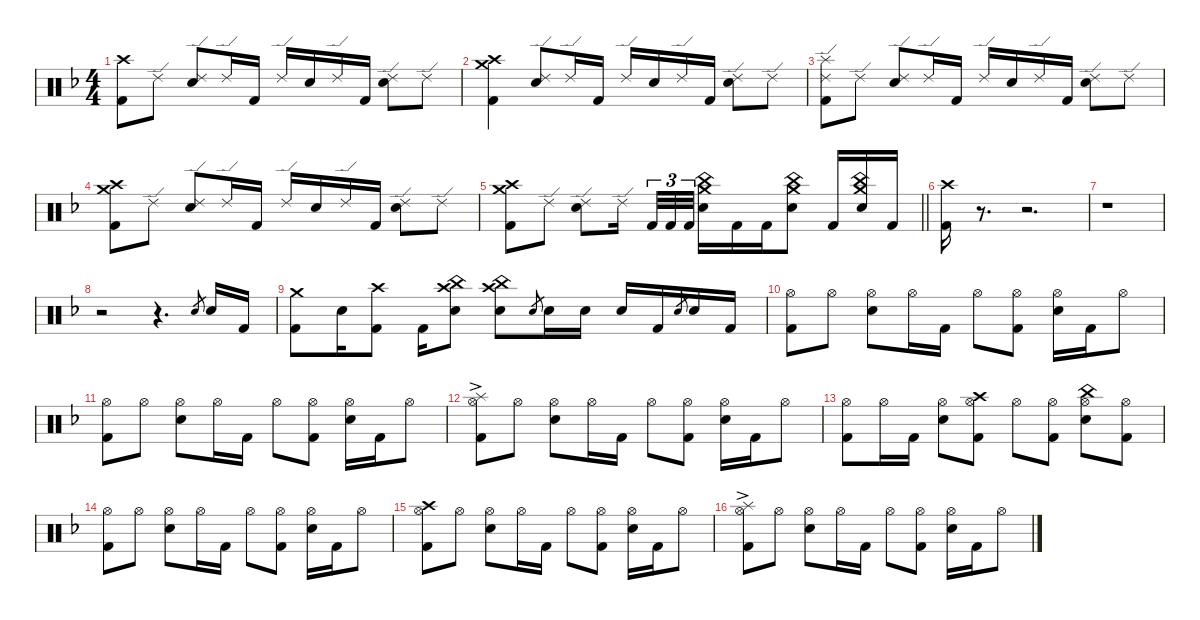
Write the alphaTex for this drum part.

\defaultSystemsLayout 4
\hideDynamics
\bracketExtendMode nobrackets
\singleTrackTrackNamePolicy hidden
\multiTrackTrackNamePolicy hidden
\otherSystemsTrackNameOrientation horizontal
\track ("Martin Lopez - Drums" "drm.") {defaultSystemsLayout 4 instrument percussion}
\staff {score}
\articulation defaults
\ts (4 4)
\tempo (89 hide)
\clef neutral
\ks dminor
("Crash high (hit)"{acc forcenatural} "Kick (hit) 2"{acc forcenatural}).8{dy mf beam Down} "Ride (edge) 2"{acc forcenatural}.8{dy f beam Down} ("Ride (edge) 2"{acc forcenatural} "Snare (hit) 2"{acc forcenatural}).8{dy mf beam Up} "Ride (edge) 2"{acc forcenatural}.16{dy f beam Up} "Kick (hit) 2"{acc forcenatural}.16{beam Up} "Ride (edge) 2"{acc forcenatural}.16{dy mf beam Up} "Snare (hit) 2"{acc forcenatural}.16{beam Up} "Ride (edge) 2"{acc forcenatural}.16{beam Up} "Kick (hit) 2"{acc forcenatural}.16{dy f beam Up} ("Ride (edge) 2"{acc forcenatural} "Snare (hit) 2"{acc forcenatural}).8{dy mf beam Down} "Ride (edge) 2"{acc forcenatural}.8{beam Down} |
\tempo (88 hide)
("Crash high (hit)"{acc forcenatural} "Crash medium (hit)"{acc forcenatural} "Kick (hit) 2"{acc forcenatural}).4{beam Down} ("Ride (edge) 2"{acc forcenatural} "Snare (hit) 2"{acc forcenatural}).8{beam Up} "Ride (edge) 2"{acc forcenatural}.16{beam Up} "Kick (hit) 2"{acc forcenatural}.16{beam Up} "Ride (edge) 2"{acc forcenatural}.16{beam Up} "Snare (hit) 2"{acc forcenatural}.16{beam Up} "Ride (edge) 2"{acc forcenatural}.16{beam Up} "Kick (hit) 2"{acc forcenatural}.16{beam Up} ("Ride (edge) 2"{acc forcenatural} "Snare (hit) 2"{acc forcenatural}).8{beam Down} "Ride (edge) 2"{acc forcenatural}.8{beam Down} |
\tempo (89 hide)
("Splash (hit)"{acc forcenatural} "Ride (edge) 2"{acc forcenatural} "Kick (hit) 2"{acc forcenatural}).8{beam Down} "Ride (edge) 2"{acc forcenatural}.8{dy f beam Down} ("Ride (edge) 2"{acc forcenatural} "Snare (hit) 2"{acc forcenatural}).8{dy mf beam Up} "Ride (edge) 2"{acc forcenatural}.16{dy f beam Up} "Kick (hit) 2"{acc forcenatural}.16{beam Up} "Ride (edge) 2"{acc forcenatural}.16{dy mf beam Up} "Snare (hit) 2"{acc forcenatural}.16{beam Up} "Ride (edge) 2"{acc forcenatural}.16{beam Up} "Kick (hit) 2"{acc forcenatural}.16{dy f beam Up} ("Ride (edge) 2"{acc forcenatural} "Snare (hit) 2"{acc forcenatural}).8{dy mf beam Down} "Ride (edge) 2"{acc forcenatural}.8{beam Down} |
\tempo (88 hide)
("Crash high (hit)"{acc forcenatural} "Crash medium (hit)"{acc forcenatural} "Kick (hit) 2"{acc forcenatural}).8{beam Down} "Ride (edge) 2"{acc forcenatural}.8{dy f beam Down} ("Ride (edge) 2"{acc forcenatural} "Snare (hit) 2"{acc forcenatural}).8{dy mf beam Up} "Ride (edge) 2"{acc forcenatural}.16{beam Up} "Kick (hit) 2"{acc forcenatural}.16{beam Up} "Ride (edge) 2"{acc forcenatural}.16{beam Up} "Snare (hit) 2"{acc forcenatural}.16{beam Up} "Ride (edge) 2"{acc forcenatural}.16{beam Up} "Kick (hit) 2"{acc forcenatural}.16{beam Up} ("Ride (edge) 2"{acc forcenatural} "Snare (hit) 2"{acc forcenatural}).8{beam Down} "Ride (edge) 2"{acc forcenatural}.8{beam Down} |
\tempo (89 hide)
\tempo (88 0.99375 hide)
\barLineRight lightlight
("Crash high (hit)"{acc forcenatural} "Crash medium (hit)"{acc forcenatural} "Kick (hit) 2"{acc forcenatural}).8{beam Down} "Ride (edge) 2"{acc forcenatural}.8{beam Down} ("Ride (edge) 2"{acc forcenatural} "Snare (hit) 2"{acc forcenatural}).8{beam Down} "Ride (edge) 2"{acc forcenatural}.16{beam Down} "Kick (hit) 2"{acc forcenatural}.32{tu (3 2) beam Up} "Kick (hit) 2"{acc forcenatural}.32{tu (3 2) beam Up} "Kick (hit) 2"{acc forcenatural}.32{tu (3 2) beam Up} ("Crash medium (hit)"{acc forcenatural} "China (hit)"{acc forcenatural} "Snare (hit) 2"{acc forcenatural}).16{beam Down} "Kick (hit) 2"{acc forcenatural}.16{beam Down} "Kick (hit) 2"{acc forcenatural}.16{beam Down} ("Crash medium (hit)"{acc forcenatural} "China (hit)"{acc forcenatural} "Snare (hit) 2"{acc forcenatural}).8{beam Down} "Kick (hit) 2"{acc forcenatural}.16{beam Up} ("Crash medium (hit)"{acc forcenatural} "China (hit)"{acc forcenatural} "Snare (hit) 2"{acc forcenatural}).16{beam Up} "Kick (hit) 2"{acc forcenatural}.16{beam Up} |
("Crash high (hit)"{acc forcenatural} "Kick (hit) 2"{acc forcenatural}).16{dy f beam Down} r.8{d beam Down} r.2{d beam Down} |
\tempo (89 hide)
r.1{beam Down} |
\tempo (88 0.00625 hide)
\tempo (89 0.99375 hide)
r.2{beam Down} r.4{d beam Down} "Electric Snare (hit)"{acc forcenatural}.8{gr dy pp beam Up} "Snare (hit) 2"{acc forcenatural}.16{dy f beam Up} "Kick (hit) 2"{acc forcenatural}.16{beam Up} |
\tempo (88 0.99375 hide)
("Crash medium (hit)"{acc forcenatural} "Kick (hit) 2"{acc forcenatural}).8{beam Down} "Snare (hit) 2"{acc forcenatural}.16{beam Down} ("Crash high (hit)"{acc forcenatural} "Kick (hit) 2"{acc forcenatural}).8{beam Down} "Kick (hit) 2"{acc forcenatural}.16{beam Down} ("China (hit)"{acc forcenatural} "Crash high (hit)"{acc forcenatural} "Snare (hit) 2"{acc forcenatural}).8{beam Down} ("China (hit)"{acc forcenatural} "Crash high (hit)"{acc forcenatural} "Snare (hit) 2"{acc forcenatural}).8{beam Down} "Electric Snare (hit)"{acc forcenatural}.8{gr dy p beam Up} "Snare (hit) 2"{acc forcenatural}.16{dy f beam Down} "Snare (hit) 2"{acc forcenatural}.16{beam Down} "Snare (hit) 2"{acc forcenatural}.16{beam Up} "Kick (hit) 2"{acc forcenatural}.16{beam Up} "Electric Snare (hit)"{acc forcenatural}.8{gr dy p beam Up} "Snare (hit) 2"{acc forcenatural}.16{dy f beam Up} "Kick (hit) 2"{acc forcenatural}.16{beam Up} |
("Hi-Hat (open)"{acc forcenatural} "Kick (hit) 2"{acc forcenatural}).8{beam Down} "Hi-Hat (open)"{acc forcenatural}.8{beam Down} ("Hi-Hat (open)"{acc forcenatural} "Snare (hit) 2"{acc forcenatural}).8{beam Down} "Hi-Hat (open)"{acc forcenatural}.16{beam Down} "Kick (hit) 2"{acc forcenatural}.16{beam Down} "Hi-Hat (open)"{acc forcenatural}.8{beam Down} ("Hi-Hat (open)"{acc forcenatural} "Kick (hit) 2"{acc forcenatural}).8{beam Down} ("Hi-Hat (open)"{acc forcenatural} "Snare (hit) 2"{acc forcenatural}).16{beam Down} "Kick (hit) 2"{acc forcenatural}.16{beam Down} "Hi-Hat (open)"{acc forcenatural}.8{beam Down} |
\tempo (89 hide)
("Hi-Hat (open)"{acc forcenatural} "Kick (hit) 2"{acc forcenatural}).8{beam Down} "Hi-Hat (open)"{acc forcenatural}.8{beam Down} ("Hi-Hat (open)"{acc forcenatural} "Snare (hit) 2"{acc forcenatural}).8{beam Down} "Hi-Hat (open)"{acc forcenatural}.16{beam Down} "Kick (hit) 2"{acc forcenatural}.16{beam Down} "Hi-Hat (open)"{acc forcenatural}.8{beam Down} ("Hi-Hat (open)"{acc forcenatural} "Kick (hit) 2"{acc forcenatural}).8{beam Down} ("Hi-Hat (open)"{acc forcenatural} "Snare (hit) 2"{acc forcenatural}).16{beam Down} "Kick (hit) 2"{acc forcenatural}.16{beam Down} "Hi-Hat (open)"{acc forcenatural}.8{beam Down} |
\tempo (88 hide)
("Splash (hit)"{ac acc forcenatural} "Hi-Hat (open)"{acc forcenatural} "Kick (hit) 2"{acc forcenatural}).8{beam Down} "Hi-Hat (open)"{acc forcenatural}.8{beam Down} ("Hi-Hat (open)"{acc forcenatural} "Snare (hit) 2"{acc forcenatural}).8{beam Down} "Hi-Hat (open)"{acc forcenatural}.16{beam Down} "Kick (hit) 2"{acc forcenatural}.16{beam Down} "Hi-Hat (open)"{acc forcenatural}.8{beam Down} ("Hi-Hat (open)"{acc forcenatural} "Kick (hit) 2"{acc forcenatural}).8{beam Down} ("Hi-Hat (open)"{acc forcenatural} "Snare (hit) 2"{acc forcenatural}).16{beam Down} "Kick (hit) 2"{acc forcenatural}.16{beam Down} "Hi-Hat (open)"{acc forcenatural}.8{beam Down} |
\tempo (89 hide)
("Hi-Hat (open)"{acc forcenatural} "Kick (hit) 2"{acc forcenatural}).8{beam Down} "Hi-Hat (open)"{acc forcenatural}.16{beam Down} "Kick (hit) 2"{acc forcenatural}.16{beam Down} ("Hi-Hat (open)"{acc forcenatural} "Snare (hit) 2"{acc forcenatural}).8{beam Down} ("Crash high (hit)"{acc forcenatural} "Hi-Hat (open)"{acc forcenatural} "Kick (hit) 2"{acc forcenatural}).8{beam Down} "Hi-Hat (open)"{acc forcenatural}.8{beam Down} ("Hi-Hat (open)"{acc forcenatural} "Kick (hit) 2"{acc forcenatural}).8{beam Down} ("China (hit)"{acc forcenatural} "Hi-Hat (open)"{acc forcenatural} "Snare (hit) 2"{acc forcenatural}).8{beam Down} ("Hi-Hat (open)"{acc forcenatural} "Kick (hit) 2"{acc forcenatural}).8{beam Down} |
\tempo (88 hide)
\tempo (89 0.99375 hide)
("Hi-Hat (open)"{acc forcenatural} "Kick (hit) 2"{acc forcenatural}).8{beam Down} "Hi-Hat (open)"{acc forcenatural}.8{beam Down} ("Hi-Hat (open)"{acc forcenatural} "Snare (hit) 2"{acc forcenatural}).8{beam Down} "Hi-Hat (open)"{acc forcenatural}.16{beam Down} "Kick (hit) 2"{acc forcenatural}.16{beam Down} "Hi-Hat (open)"{acc forcenatural}.8{beam Down} ("Hi-Hat (open)"{acc forcenatural} "Kick (hit) 2"{acc forcenatural}).8{beam Down} ("Hi-Hat (open)"{acc forcenatural} "Snare (hit) 2"{acc forcenatural}).16{beam Down} "Kick (hit) 2"{acc forcenatural}.16{beam Down} "Hi-Hat (open)"{acc forcenatural}.8{beam Down} |
("Crash high (hit)"{acc forcenatural} "Hi-Hat (open)"{acc forcenatural} "Kick (hit) 2"{acc forcenatural}).8{beam Down} "Hi-Hat (open)"{acc forcenatural}.8{beam Down} ("Hi-Hat (open)"{acc forcenatural} "Snare (hit) 2"{acc forcenatural}).8{beam Down} "Hi-Hat (open)"{acc forcenatural}.16{beam Down} "Kick (hit) 2"{acc forcenatural}.16{beam Down} "Hi-Hat (open)"{acc forcenatural}.8{beam Down} ("Hi-Hat (open)"{acc forcenatural} "Kick (hit) 2"{acc forcenatural}).8{beam Down} ("Hi-Hat (open)"{acc forcenatural} "Snare (hit) 2"{acc forcenatural}).16{beam Down} "Kick (hit) 2"{acc forcenatural}.16{beam Down} "Hi-Hat (open)"{acc forcenatural}.8{beam Down} |
\tempo (88 hide)
("Splash (hit)"{ac acc forcenatural} "Hi-Hat (open)"{acc forcenatural} "Kick (hit) 2"{acc forcenatural}).8{beam Down} "Hi-Hat (open)"{acc forcenatural}.8{beam Down} ("Hi-Hat (open)"{acc forcenatural} "Snare (hit) 2"{acc forcenatural}).8{beam Down} "Hi-Hat (open)"{acc forcenatural}.16{beam Down} "Kick (hit) 2"{acc forcenatural}.16{beam Down} "Hi-Hat (open)"{acc forcenatural}.8{beam Down} ("Hi-Hat (open)"{acc forcenatural} "Kick (hit) 2"{acc forcenatural}).8{beam Down} ("Hi-Hat (open)"{acc forcenatural} "Snare (hit) 2"{acc forcenatural}).16{beam Down} "Kick (hit) 2"{acc forcenatural}.16{beam Down} "Hi-Hat (open)"{acc forcenatural}.8{beam Down}
